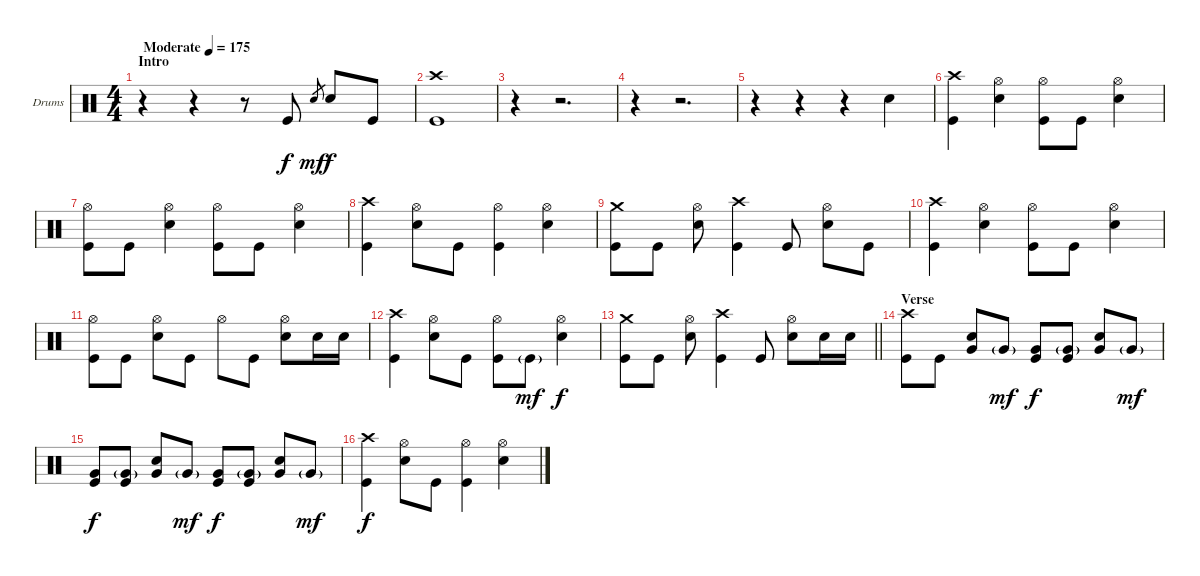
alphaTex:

\bracketExtendMode groupsimilarinstruments
\firstSystemTrackNameOrientation horizontal
\otherSystemsTrackNameOrientation horizontal
\track ("Drumkit" "Drums") {instrument percussion}
\staff {score}
\articulation defaults
\ts (4 4)
\beaming (8 2 2 2 2)
\section ("" "Intro")
\tempo (175 "Moderate")
\clef neutral
\ks c
r.4{dy f} r.4 r.8 "Kick (hit)".8 "Snare (hit) 2".8{gr dy mf} "Snare (hit) 2".8{dy f} "Kick (hit)".8 |
("Crash high (hit)" "Kick (hit)").1 |
r.4 r.2{d} |
r.4 r.2{d} |
r.4 r.4 r.4 "Snare (hit) 2".4 |
("Crash high (hit)" "Kick (hit)").4 ("Hi-Hat (open)" "Snare (hit) 2").4 ("Hi-Hat (open)" "Kick (hit)").8 "Kick (hit)".8 ("Hi-Hat (open)" "Snare (hit) 2").4 |
("Hi-Hat (open)" "Kick (hit)").8 "Kick (hit)".8 ("Hi-Hat (open)" "Snare (hit) 2").4 ("Hi-Hat (open)" "Kick (hit)").8 "Kick (hit)".8 ("Hi-Hat (open)" "Snare (hit) 2").4 |
("Crash high (hit)" "Kick (hit)").4 ("Hi-Hat (open)" "Snare (hit) 2").8 "Kick (hit)".8 ("Hi-Hat (open)" "Kick (hit)").4 ("Hi-Hat (open)" "Snare (hit) 2").4 |
("Crash medium (hit)" "Kick (hit)").8 "Kick (hit)".8 ("Hi-Hat (open)" "Snare (hit) 2").8 ("Crash high (hit)" "Kick (hit)").4 "Kick (hit)".8 ("Hi-Hat (open)" "Snare (hit) 2").8 "Kick (hit)".8 |
("Crash high (hit)" "Kick (hit)").4 ("Hi-Hat (open)" "Snare (hit) 2").4 ("Hi-Hat (open)" "Kick (hit)").8 "Kick (hit)".8 ("Hi-Hat (open)" "Snare (hit) 2").4 |
("Hi-Hat (open)" "Kick (hit)").8 "Kick (hit)".8 ("Hi-Hat (open)" "Snare (hit) 2").8 "Kick (hit)".8 "Hi-Hat (open)".8 "Kick (hit)".8 ("Hi-Hat (open)" "Snare (hit) 2").8 "Snare (hit) 2".16 "Snare (hit) 2".16 |
("Crash high (hit)" "Kick (hit)").4 ("Hi-Hat (open)" "Snare (hit) 2").8 "Kick (hit)".8 ("Hi-Hat (open)" "Kick (hit)").8 "Kick (hit)"{g}.8{dy mf} ("Hi-Hat (open)" "Snare (hit) 2").4{dy f} |
\barLineRight lightlight
("Crash medium (hit)" "Kick (hit)").8 "Kick (hit)".8 ("Hi-Hat (open)" "Snare (hit) 2").8 ("Crash high (hit)" "Kick (hit)").4 "Kick (hit)".8 ("Hi-Hat (open)" "Snare (hit) 2").8 "Snare (hit) 2".16 "Snare (hit) 2".16 |
\section ("" "Verse")
("Crash high (hit)" "Kick (hit)").8 "Kick (hit)".8 ("Very Low Tom (hit)" "Snare (hit) 2").8 "Very Low Tom (hit)"{g}.8{dy mf} ("Very Low Tom (hit)" "Kick (hit)").8{dy f} ("Very Low Tom (hit)"{g} "Kick (hit)").8 ("Very Low Tom (hit)" "Snare (hit) 2").8 "Very Low Tom (hit)"{g}.8{dy mf} |
("Very Low Tom (hit)" "Kick (hit)").8{dy f} ("Very Low Tom (hit)"{g} "Kick (hit)").8 ("Very Low Tom (hit)" "Snare (hit) 2").8 "Very Low Tom (hit)"{g}.8{dy mf} ("Very Low Tom (hit)" "Kick (hit)").8{dy f} ("Very Low Tom (hit)"{g} "Kick (hit)").8 ("Very Low Tom (hit)" "Snare (hit) 2").8 "Very Low Tom (hit)"{g}.8{dy mf} |
("Crash high (hit)" "Kick (hit)").4{dy f} ("Hi-Hat (open)" "Snare (hit) 2").8 "Kick (hit)".8 ("Hi-Hat (open)" "Kick (hit)").4 ("Hi-Hat (open)" "Snare (hit) 2").4
